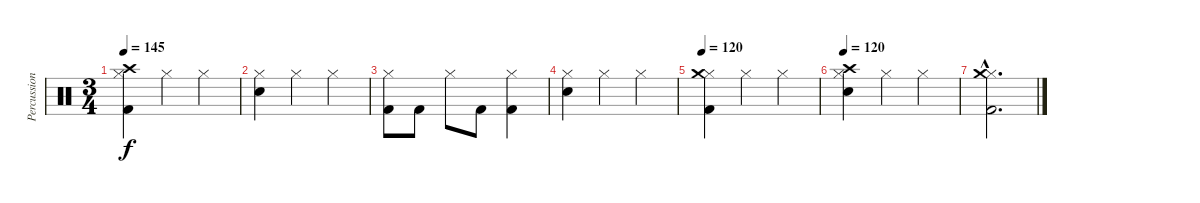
\track ("Percussion" "Percussion") {instrument percussion}
\staff {score}
\articulation defaults
\ts (3 4)
\tempo 145
\clef neutral
\ks c
("Hi-Hat (closed)" "Kick (hit) 2" "Crash high (hit)").4{dy f} "Hi-Hat (closed)".4 "Hi-Hat (closed)".4 |
("Hi-Hat (closed)" "Electric Snare (hit)").4 "Hi-Hat (closed)".4 "Hi-Hat (closed)".4 |
("Hi-Hat (closed)" "Kick (hit) 2").8 "Kick (hit) 2".8 "Hi-Hat (closed)".8 "Kick (hit) 2".8 ("Hi-Hat (closed)" "Kick (hit) 2").4 |
("Hi-Hat (closed)" "Electric Snare (hit)").4 "Hi-Hat (closed)".4 "Hi-Hat (closed)".4 |
\tempo 120
("Hi-Hat (closed)" "Kick (hit) 2" "Crash medium (hit)").4 "Hi-Hat (closed)".4 "Hi-Hat (closed)".4 |
\tempo 120
("Hi-Hat (closed)" "Crash high (hit)" "Electric Snare (hit)").4 "Hi-Hat (closed)".4 "Hi-Hat (closed)".4 |
("Hi-Hat (closed)"{hac} "Kick (hit) 2"{hac} "Crash medium (hit)"{hac}).2{d}
